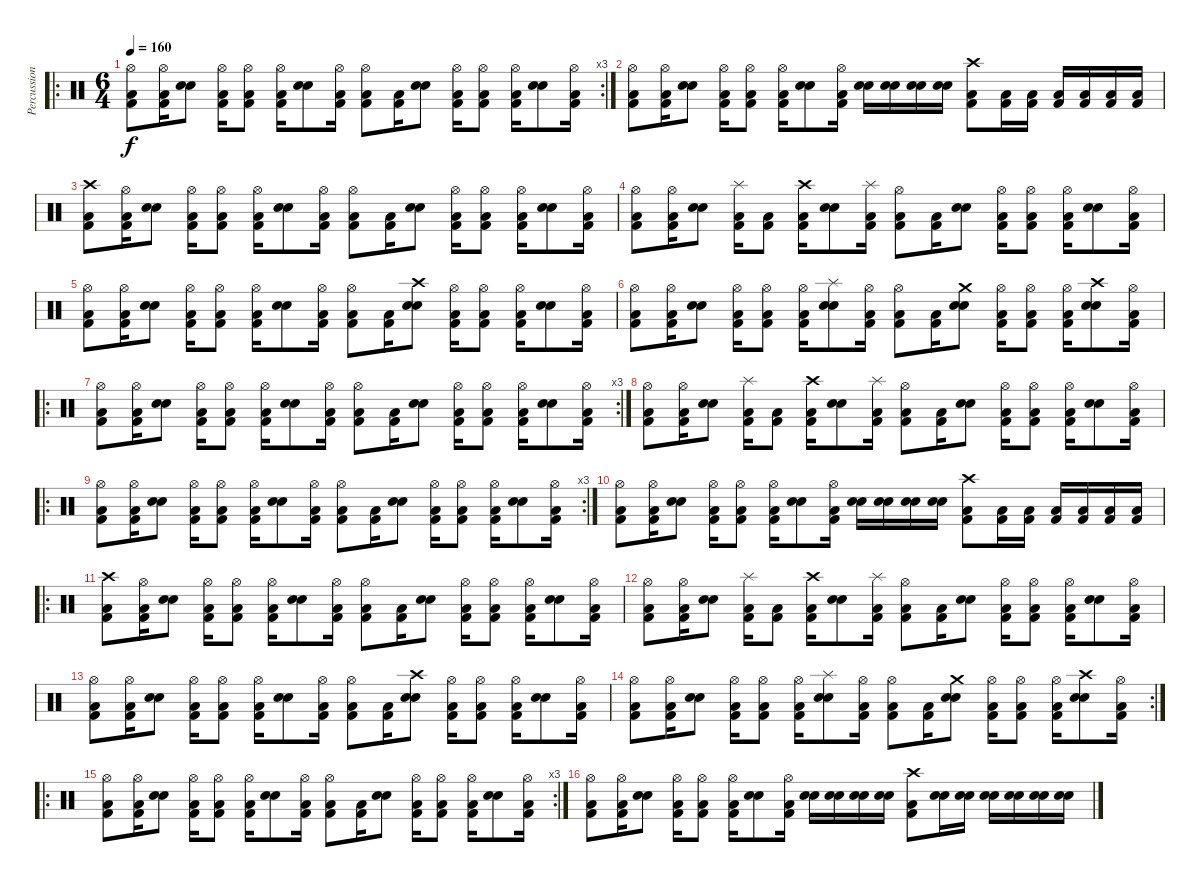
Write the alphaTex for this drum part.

\track ("Percussions" "Percussion") {instrument percussion}
\staff {score}
\articulation defaults
\ro
\rc 3
\ts (6 4)
\tempo 160
\clef neutral
\ks c
("Hi-Hat (open)" "Kick (hit) 2" "Low Floor Tom (hit)").8{dy f} ("Hi-Hat (open)" "Kick (hit) 2" "Low Floor Tom (hit)").16 ("Snare (hit) 2" "Electric Snare (hit)").8 ("Hi-Hat (open)" "Kick (hit) 2" "Low Floor Tom (hit)").16 ("Hi-Hat (open)" "Kick (hit) 2" "Low Floor Tom (hit)").8 ("Hi-Hat (open)" "Kick (hit) 2" "Low Floor Tom (hit)").16 ("Snare (hit) 2" "Electric Snare (hit)").8 ("Hi-Hat (open)" "Kick (hit) 2" "Low Floor Tom (hit)").16 ("Hi-Hat (open)" "Kick (hit) 2" "Low Floor Tom (hit)").8 ("Kick (hit) 2" "Low Floor Tom (hit)").16 ("Snare (hit) 2" "Electric Snare (hit)").8 ("Hi-Hat (open)" "Kick (hit) 2" "Low Floor Tom (hit)").16 ("Hi-Hat (open)" "Kick (hit) 2" "Low Floor Tom (hit)").8 ("Hi-Hat (open)" "Kick (hit) 2" "Low Floor Tom (hit)").16 ("Snare (hit) 2" "Electric Snare (hit)").8 ("Hi-Hat (open)" "Kick (hit) 2" "Low Floor Tom (hit)").16 |
("Hi-Hat (open)" "Kick (hit) 2" "Low Floor Tom (hit)").8 ("Hi-Hat (open)" "Kick (hit) 2" "Low Floor Tom (hit)").16 ("Snare (hit) 2" "Electric Snare (hit)").8 ("Hi-Hat (open)" "Kick (hit) 2" "Low Floor Tom (hit)").16 ("Hi-Hat (open)" "Kick (hit) 2" "Low Floor Tom (hit)").8 ("Hi-Hat (open)" "Kick (hit) 2" "Low Floor Tom (hit)").16 ("Snare (hit) 2" "Electric Snare (hit)").8 ("Hi-Hat (open)" "Kick (hit) 2" "Low Floor Tom (hit)").16 ("Snare (hit) 2" "Electric Snare (hit)").16 ("Snare (hit) 2" "Electric Snare (hit)").16 ("Snare (hit) 2" "Electric Snare (hit)").16 ("Snare (hit) 2" "Electric Snare (hit)").16 ("Crash high (hit)" "Kick (hit) 2" "Low Floor Tom (hit)").8 ("Kick (hit) 2" "Low Floor Tom (hit)").16 ("Kick (hit) 2" "Low Floor Tom (hit)").16 ("Kick (hit) 2" "Low Floor Tom (hit)").16 ("Kick (hit) 2" "Low Floor Tom (hit)").16 ("Kick (hit) 2" "Low Floor Tom (hit)").16 ("Kick (hit) 2" "Low Floor Tom (hit)").16 |
("Crash high (hit)" "Kick (hit) 2" "Low Floor Tom (hit)").8 ("Hi-Hat (open)" "Kick (hit) 2" "Low Floor Tom (hit)").16 ("Snare (hit) 2" "Electric Snare (hit)").8 ("Hi-Hat (open)" "Kick (hit) 2" "Low Floor Tom (hit)").16 ("Hi-Hat (open)" "Kick (hit) 2" "Low Floor Tom (hit)").8 ("Hi-Hat (open)" "Kick (hit) 2" "Low Floor Tom (hit)").16 ("Snare (hit) 2" "Electric Snare (hit)").8 ("Hi-Hat (open)" "Kick (hit) 2" "Low Floor Tom (hit)").16 ("Hi-Hat (open)" "Kick (hit) 2" "Low Floor Tom (hit)").8 ("Kick (hit) 2" "Low Floor Tom (hit)").16 ("Snare (hit) 2" "Electric Snare (hit)").8 ("Hi-Hat (open)" "Kick (hit) 2" "Low Floor Tom (hit)").16 ("Hi-Hat (open)" "Kick (hit) 2" "Low Floor Tom (hit)").8 ("Hi-Hat (open)" "Kick (hit) 2" "Low Floor Tom (hit)").16 ("Snare (hit) 2" "Electric Snare (hit)").8 ("Hi-Hat (open)" "Kick (hit) 2" "Low Floor Tom (hit)").16 |
("Hi-Hat (open)" "Kick (hit) 2" "Low Floor Tom (hit)").8 ("Hi-Hat (open)" "Kick (hit) 2" "Low Floor Tom (hit)").16 ("Snare (hit) 2" "Electric Snare (hit)").8 ("Splash (hit)" "Kick (hit) 2" "Low Floor Tom (hit)").16 ("Kick (hit) 2" "Low Floor Tom (hit)").8 ("Crash high (hit)" "Kick (hit) 2" "Low Floor Tom (hit)").16 ("Snare (hit) 2" "Electric Snare (hit)").8 ("Splash (hit)" "Kick (hit) 2" "Low Floor Tom (hit)").16 ("Hi-Hat (open)" "Kick (hit) 2" "Low Floor Tom (hit)").8 ("Kick (hit) 2" "Low Floor Tom (hit)").16 ("Snare (hit) 2" "Electric Snare (hit)").8 ("Hi-Hat (open)" "Kick (hit) 2" "Low Floor Tom (hit)").16 ("Hi-Hat (open)" "Kick (hit) 2" "Low Floor Tom (hit)").8 ("Hi-Hat (open)" "Kick (hit) 2" "Low Floor Tom (hit)").16 ("Snare (hit) 2" "Electric Snare (hit)").8 ("Hi-Hat (open)" "Kick (hit) 2" "Low Floor Tom (hit)").16 |
("Hi-Hat (open)" "Kick (hit) 2" "Low Floor Tom (hit)").8 ("Hi-Hat (open)" "Kick (hit) 2" "Low Floor Tom (hit)").16 ("Snare (hit) 2" "Electric Snare (hit)").8 ("Hi-Hat (open)" "Kick (hit) 2" "Low Floor Tom (hit)").16 ("Hi-Hat (open)" "Kick (hit) 2" "Low Floor Tom (hit)").8 ("Hi-Hat (open)" "Kick (hit) 2" "Low Floor Tom (hit)").16 ("Snare (hit) 2" "Electric Snare (hit)").8 ("Hi-Hat (open)" "Kick (hit) 2" "Low Floor Tom (hit)").16 ("Hi-Hat (open)" "Kick (hit) 2" "Low Floor Tom (hit)").8 ("Kick (hit) 2" "Low Floor Tom (hit)").16 ("Crash high (hit)" "Snare (hit) 2" "Electric Snare (hit)").8 ("Hi-Hat (open)" "Kick (hit) 2" "Low Floor Tom (hit)").16 ("Hi-Hat (open)" "Kick (hit) 2" "Low Floor Tom (hit)").8 ("Hi-Hat (open)" "Kick (hit) 2" "Low Floor Tom (hit)").16 ("Snare (hit) 2" "Electric Snare (hit)").8 ("Hi-Hat (open)" "Kick (hit) 2" "Low Floor Tom (hit)").16 |
("Hi-Hat (open)" "Kick (hit) 2" "Low Floor Tom (hit)").8 ("Hi-Hat (open)" "Kick (hit) 2" "Low Floor Tom (hit)").16 ("Snare (hit) 2" "Electric Snare (hit)").8 ("Hi-Hat (open)" "Kick (hit) 2" "Low Floor Tom (hit)").16 ("Hi-Hat (open)" "Kick (hit) 2" "Low Floor Tom (hit)").8 ("Hi-Hat (open)" "Kick (hit) 2" "Low Floor Tom (hit)").16 ("Splash (hit)" "Snare (hit) 2" "Electric Snare (hit)").8 ("Hi-Hat (open)" "Kick (hit) 2" "Low Floor Tom (hit)").16 ("Hi-Hat (open)" "Kick (hit) 2" "Low Floor Tom (hit)").8 ("Kick (hit) 2" "Low Floor Tom (hit)").16 ("Crash medium (hit)" "Snare (hit) 2" "Electric Snare (hit)").8 ("Hi-Hat (open)" "Kick (hit) 2" "Low Floor Tom (hit)").16 ("Hi-Hat (open)" "Kick (hit) 2" "Low Floor Tom (hit)").8 ("Hi-Hat (open)" "Kick (hit) 2" "Low Floor Tom (hit)").16 ("Crash high (hit)" "Snare (hit) 2" "Electric Snare (hit)").8 ("Hi-Hat (open)" "Kick (hit) 2" "Low Floor Tom (hit)").16 |
\ro
\rc 3
("Hi-Hat (open)" "Kick (hit) 2" "Low Floor Tom (hit)").8 ("Hi-Hat (open)" "Kick (hit) 2" "Low Floor Tom (hit)").16 ("Snare (hit) 2" "Electric Snare (hit)").8 ("Hi-Hat (open)" "Kick (hit) 2" "Low Floor Tom (hit)").16 ("Hi-Hat (open)" "Kick (hit) 2" "Low Floor Tom (hit)").8 ("Hi-Hat (open)" "Kick (hit) 2" "Low Floor Tom (hit)").16 ("Snare (hit) 2" "Electric Snare (hit)").8 ("Hi-Hat (open)" "Kick (hit) 2" "Low Floor Tom (hit)").16 ("Hi-Hat (open)" "Kick (hit) 2" "Low Floor Tom (hit)").8 ("Kick (hit) 2" "Low Floor Tom (hit)").16 ("Snare (hit) 2" "Electric Snare (hit)").8 ("Hi-Hat (open)" "Kick (hit) 2" "Low Floor Tom (hit)").16 ("Hi-Hat (open)" "Kick (hit) 2" "Low Floor Tom (hit)").8 ("Hi-Hat (open)" "Kick (hit) 2" "Low Floor Tom (hit)").16 ("Snare (hit) 2" "Electric Snare (hit)").8 ("Hi-Hat (open)" "Kick (hit) 2" "Low Floor Tom (hit)").16 |
("Hi-Hat (open)" "Kick (hit) 2" "Low Floor Tom (hit)").8 ("Hi-Hat (open)" "Kick (hit) 2" "Low Floor Tom (hit)").16 ("Snare (hit) 2" "Electric Snare (hit)").8 ("Splash (hit)" "Kick (hit) 2" "Low Floor Tom (hit)").16 ("Kick (hit) 2" "Low Floor Tom (hit)").8 ("Crash high (hit)" "Kick (hit) 2" "Low Floor Tom (hit)").16 ("Snare (hit) 2" "Electric Snare (hit)").8 ("Splash (hit)" "Kick (hit) 2" "Low Floor Tom (hit)").16 ("Hi-Hat (open)" "Kick (hit) 2" "Low Floor Tom (hit)").8 ("Kick (hit) 2" "Low Floor Tom (hit)").16 ("Snare (hit) 2" "Electric Snare (hit)").8 ("Hi-Hat (open)" "Kick (hit) 2" "Low Floor Tom (hit)").16 ("Hi-Hat (open)" "Kick (hit) 2" "Low Floor Tom (hit)").8 ("Hi-Hat (open)" "Kick (hit) 2" "Low Floor Tom (hit)").16 ("Snare (hit) 2" "Electric Snare (hit)").8 ("Hi-Hat (open)" "Kick (hit) 2" "Low Floor Tom (hit)").16 |
\ro
\rc 3
("Hi-Hat (open)" "Kick (hit) 2" "Low Floor Tom (hit)").8 ("Hi-Hat (open)" "Kick (hit) 2" "Low Floor Tom (hit)").16 ("Snare (hit) 2" "Electric Snare (hit)").8 ("Hi-Hat (open)" "Kick (hit) 2" "Low Floor Tom (hit)").16 ("Hi-Hat (open)" "Kick (hit) 2" "Low Floor Tom (hit)").8 ("Hi-Hat (open)" "Kick (hit) 2" "Low Floor Tom (hit)").16 ("Snare (hit) 2" "Electric Snare (hit)").8 ("Hi-Hat (open)" "Kick (hit) 2" "Low Floor Tom (hit)").16 ("Hi-Hat (open)" "Kick (hit) 2" "Low Floor Tom (hit)").8 ("Kick (hit) 2" "Low Floor Tom (hit)").16 ("Snare (hit) 2" "Electric Snare (hit)").8 ("Hi-Hat (open)" "Kick (hit) 2" "Low Floor Tom (hit)").16 ("Hi-Hat (open)" "Kick (hit) 2" "Low Floor Tom (hit)").8 ("Hi-Hat (open)" "Kick (hit) 2" "Low Floor Tom (hit)").16 ("Snare (hit) 2" "Electric Snare (hit)").8 ("Hi-Hat (open)" "Kick (hit) 2" "Low Floor Tom (hit)").16 |
("Hi-Hat (open)" "Kick (hit) 2" "Low Floor Tom (hit)").8 ("Hi-Hat (open)" "Kick (hit) 2" "Low Floor Tom (hit)").16 ("Snare (hit) 2" "Electric Snare (hit)").8 ("Hi-Hat (open)" "Kick (hit) 2" "Low Floor Tom (hit)").16 ("Hi-Hat (open)" "Kick (hit) 2" "Low Floor Tom (hit)").8 ("Hi-Hat (open)" "Kick (hit) 2" "Low Floor Tom (hit)").16 ("Snare (hit) 2" "Electric Snare (hit)").8 ("Hi-Hat (open)" "Kick (hit) 2" "Low Floor Tom (hit)").16 ("Snare (hit) 2" "Electric Snare (hit)").16 ("Snare (hit) 2" "Electric Snare (hit)").16 ("Snare (hit) 2" "Electric Snare (hit)").16 ("Snare (hit) 2" "Electric Snare (hit)").16 ("Crash high (hit)" "Kick (hit) 2" "Low Floor Tom (hit)").8 ("Kick (hit) 2" "Low Floor Tom (hit)").16 ("Kick (hit) 2" "Low Floor Tom (hit)").16 ("Kick (hit) 2" "Low Floor Tom (hit)").16 ("Kick (hit) 2" "Low Floor Tom (hit)").16 ("Kick (hit) 2" "Low Floor Tom (hit)").16 ("Kick (hit) 2" "Low Floor Tom (hit)").16 |
\ro
("Crash high (hit)" "Kick (hit) 2" "Low Floor Tom (hit)").8 ("Hi-Hat (open)" "Kick (hit) 2" "Low Floor Tom (hit)").16 ("Snare (hit) 2" "Electric Snare (hit)").8 ("Hi-Hat (open)" "Kick (hit) 2" "Low Floor Tom (hit)").16 ("Hi-Hat (open)" "Kick (hit) 2" "Low Floor Tom (hit)").8 ("Hi-Hat (open)" "Kick (hit) 2" "Low Floor Tom (hit)").16 ("Snare (hit) 2" "Electric Snare (hit)").8 ("Hi-Hat (open)" "Kick (hit) 2" "Low Floor Tom (hit)").16 ("Hi-Hat (open)" "Kick (hit) 2" "Low Floor Tom (hit)").8 ("Kick (hit) 2" "Low Floor Tom (hit)").16 ("Snare (hit) 2" "Electric Snare (hit)").8 ("Hi-Hat (open)" "Kick (hit) 2" "Low Floor Tom (hit)").16 ("Hi-Hat (open)" "Kick (hit) 2" "Low Floor Tom (hit)").8 ("Hi-Hat (open)" "Kick (hit) 2" "Low Floor Tom (hit)").16 ("Snare (hit) 2" "Electric Snare (hit)").8 ("Hi-Hat (open)" "Kick (hit) 2" "Low Floor Tom (hit)").16 |
("Hi-Hat (open)" "Kick (hit) 2" "Low Floor Tom (hit)").8 ("Hi-Hat (open)" "Kick (hit) 2" "Low Floor Tom (hit)").16 ("Snare (hit) 2" "Electric Snare (hit)").8 ("Splash (hit)" "Kick (hit) 2" "Low Floor Tom (hit)").16 ("Kick (hit) 2" "Low Floor Tom (hit)").8 ("Crash high (hit)" "Kick (hit) 2" "Low Floor Tom (hit)").16 ("Snare (hit) 2" "Electric Snare (hit)").8 ("Splash (hit)" "Kick (hit) 2" "Low Floor Tom (hit)").16 ("Hi-Hat (open)" "Kick (hit) 2" "Low Floor Tom (hit)").8 ("Kick (hit) 2" "Low Floor Tom (hit)").16 ("Snare (hit) 2" "Electric Snare (hit)").8 ("Hi-Hat (open)" "Kick (hit) 2" "Low Floor Tom (hit)").16 ("Hi-Hat (open)" "Kick (hit) 2" "Low Floor Tom (hit)").8 ("Hi-Hat (open)" "Kick (hit) 2" "Low Floor Tom (hit)").16 ("Snare (hit) 2" "Electric Snare (hit)").8 ("Hi-Hat (open)" "Kick (hit) 2" "Low Floor Tom (hit)").16 |
("Hi-Hat (open)" "Kick (hit) 2" "Low Floor Tom (hit)").8 ("Hi-Hat (open)" "Kick (hit) 2" "Low Floor Tom (hit)").16 ("Snare (hit) 2" "Electric Snare (hit)").8 ("Hi-Hat (open)" "Kick (hit) 2" "Low Floor Tom (hit)").16 ("Hi-Hat (open)" "Kick (hit) 2" "Low Floor Tom (hit)").8 ("Hi-Hat (open)" "Kick (hit) 2" "Low Floor Tom (hit)").16 ("Snare (hit) 2" "Electric Snare (hit)").8 ("Hi-Hat (open)" "Kick (hit) 2" "Low Floor Tom (hit)").16 ("Hi-Hat (open)" "Kick (hit) 2" "Low Floor Tom (hit)").8 ("Kick (hit) 2" "Low Floor Tom (hit)").16 ("Crash high (hit)" "Snare (hit) 2" "Electric Snare (hit)").8 ("Hi-Hat (open)" "Kick (hit) 2" "Low Floor Tom (hit)").16 ("Hi-Hat (open)" "Kick (hit) 2" "Low Floor Tom (hit)").8 ("Hi-Hat (open)" "Kick (hit) 2" "Low Floor Tom (hit)").16 ("Snare (hit) 2" "Electric Snare (hit)").8 ("Hi-Hat (open)" "Kick (hit) 2" "Low Floor Tom (hit)").16 |
\rc 2
("Hi-Hat (open)" "Kick (hit) 2" "Low Floor Tom (hit)").8 ("Hi-Hat (open)" "Kick (hit) 2" "Low Floor Tom (hit)").16 ("Snare (hit) 2" "Electric Snare (hit)").8 ("Hi-Hat (open)" "Kick (hit) 2" "Low Floor Tom (hit)").16 ("Hi-Hat (open)" "Kick (hit) 2" "Low Floor Tom (hit)").8 ("Hi-Hat (open)" "Kick (hit) 2" "Low Floor Tom (hit)").16 ("Splash (hit)" "Snare (hit) 2" "Electric Snare (hit)").8 ("Hi-Hat (open)" "Kick (hit) 2" "Low Floor Tom (hit)").16 ("Hi-Hat (open)" "Kick (hit) 2" "Low Floor Tom (hit)").8 ("Kick (hit) 2" "Low Floor Tom (hit)").16 ("Crash medium (hit)" "Snare (hit) 2" "Electric Snare (hit)").8 ("Hi-Hat (open)" "Kick (hit) 2" "Low Floor Tom (hit)").16 ("Hi-Hat (open)" "Kick (hit) 2" "Low Floor Tom (hit)").8 ("Hi-Hat (open)" "Kick (hit) 2" "Low Floor Tom (hit)").16 ("Crash high (hit)" "Snare (hit) 2" "Electric Snare (hit)").8 ("Hi-Hat (open)" "Kick (hit) 2" "Low Floor Tom (hit)").16 |
\ro
\rc 3
("Hi-Hat (open)" "Kick (hit) 2" "Low Floor Tom (hit)").8 ("Hi-Hat (open)" "Kick (hit) 2" "Low Floor Tom (hit)").16 ("Snare (hit) 2" "Electric Snare (hit)").8 ("Hi-Hat (open)" "Kick (hit) 2" "Low Floor Tom (hit)").16 ("Hi-Hat (open)" "Kick (hit) 2" "Low Floor Tom (hit)").8 ("Hi-Hat (open)" "Kick (hit) 2" "Low Floor Tom (hit)").16 ("Snare (hit) 2" "Electric Snare (hit)").8 ("Hi-Hat (open)" "Kick (hit) 2" "Low Floor Tom (hit)").16 ("Hi-Hat (open)" "Kick (hit) 2" "Low Floor Tom (hit)").8 ("Kick (hit) 2" "Low Floor Tom (hit)").16 ("Snare (hit) 2" "Electric Snare (hit)").8 ("Hi-Hat (open)" "Kick (hit) 2" "Low Floor Tom (hit)").16 ("Hi-Hat (open)" "Kick (hit) 2" "Low Floor Tom (hit)").8 ("Hi-Hat (open)" "Kick (hit) 2" "Low Floor Tom (hit)").16 ("Snare (hit) 2" "Electric Snare (hit)").8 ("Hi-Hat (open)" "Kick (hit) 2" "Low Floor Tom (hit)").16 |
("Hi-Hat (open)" "Kick (hit) 2" "Low Floor Tom (hit)").8 ("Hi-Hat (open)" "Kick (hit) 2" "Low Floor Tom (hit)").16 ("Snare (hit) 2" "Electric Snare (hit)").8 ("Hi-Hat (open)" "Kick (hit) 2" "Low Floor Tom (hit)").16 ("Hi-Hat (open)" "Kick (hit) 2" "Low Floor Tom (hit)").8 ("Hi-Hat (open)" "Kick (hit) 2" "Low Floor Tom (hit)").16 ("Snare (hit) 2" "Electric Snare (hit)").8 ("Hi-Hat (open)" "Kick (hit) 2" "Low Floor Tom (hit)").16 ("Snare (hit) 2" "Electric Snare (hit)").16 ("Snare (hit) 2" "Electric Snare (hit)").16 ("Snare (hit) 2" "Electric Snare (hit)").16 ("Snare (hit) 2" "Electric Snare (hit)").16 ("Crash high (hit)" "Kick (hit) 2" "Low Floor Tom (hit)").8 ("Snare (hit) 2" "Snare (hit) 2").16 ("Snare (hit) 2" "Snare (hit) 2").16 ("Snare (hit) 2" "Snare (hit) 2").16 ("Snare (hit) 2" "Snare (hit) 2").16 ("Snare (hit) 2" "Snare (hit) 2").16 ("Snare (hit) 2" "Snare (hit) 2").16
